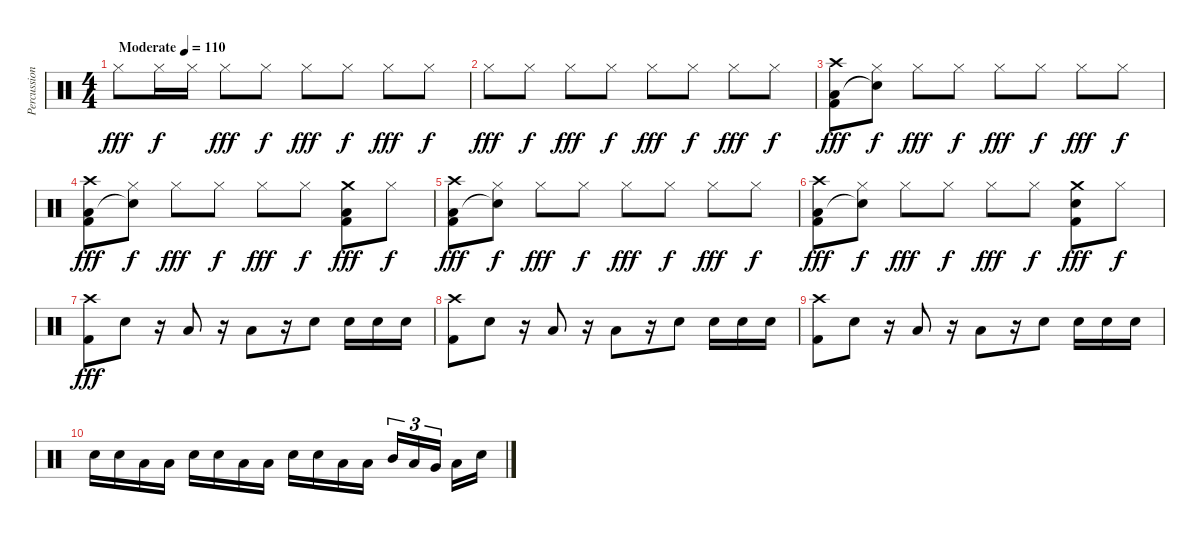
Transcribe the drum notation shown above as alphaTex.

\track ("Percussion" "Percussion") {instrument percussion}
\staff {score}
\articulation defaults
\ts (4 4)
\tempo (110 "Moderate")
\clef neutral
\ks c "Hi-Hat (closed)".8{dy fff} "Hi-Hat (closed)".16{dy f} "Hi-Hat (closed)".16 "Hi-Hat (closed)".8{dy fff} "Hi-Hat (closed)".8{dy f} "Hi-Hat (closed)".8{dy fff} "Hi-Hat (closed)".8{dy f} "Hi-Hat (closed)".8{dy fff} "Hi-Hat (closed)".8{dy f}
|
"Hi-Hat (closed)".8{dy fff} "Hi-Hat (closed)".8{dy f} "Hi-Hat (closed)".8{dy fff} "Hi-Hat (closed)".8{dy f} "Hi-Hat (closed)".8{dy fff} "Hi-Hat (closed)".8{dy f} "Hi-Hat (closed)".8{dy fff} "Hi-Hat (closed)".8{dy f} |
("Crash high (hit)" "Low Tom (hit)" "Kick (hit) 2").8{dy fff} ("Hi-Hat (closed)" "Snare (hit)"{t}).8{dy f} "Hi-Hat (closed)".8{dy fff} "Hi-Hat (closed)".8{dy f} "Hi-Hat (closed)".8{dy fff} "Hi-Hat (closed)".8{dy f} "Hi-Hat (closed)".8{dy fff} "Hi-Hat (closed)".8{dy f} |
("Crash high (hit)" "Low Tom (hit)" "Kick (hit) 2").8{dy fff} ("Hi-Hat (closed)" "Snare (hit)"{t}).8{dy f} "Hi-Hat (closed)".8{dy fff} "Hi-Hat (closed)".8{dy f} "Hi-Hat (closed)".8{dy fff} "Hi-Hat (closed)".8{dy f} ("Crash medium (hit)" "Low Tom (hit)" "Kick (hit) 2").8{dy fff} "Hi-Hat (closed)".8{dy f} |
("Crash high (hit)" "Low Tom (hit)" "Kick (hit) 2").8{dy fff} ("Hi-Hat (closed)" "Snare (hit)"{t}).8{dy f} "Hi-Hat (closed)".8{dy fff} "Hi-Hat (closed)".8{dy f} "Hi-Hat (closed)".8{dy fff} "Hi-Hat (closed)".8{dy f} "Hi-Hat (closed)".8{dy fff} "Hi-Hat (closed)".8{dy f} |
("Crash high (hit)" "Low Tom (hit)" "Kick (hit) 2").8{dy fff} ("Hi-Hat (closed)" "Snare (hit)"{t}).8{dy f} "Hi-Hat (closed)".8{dy fff} "Hi-Hat (closed)".8{dy f} "Hi-Hat (closed)".8{dy fff} "Hi-Hat (closed)".8{dy f} ("Crash medium (hit)" "Electric Snare (hit)" "Kick (hit) 2").8{dy fff} "Hi-Hat (closed)".8{dy f} |
("Crash high (hit)" "Kick (hit) 2").8{dy fff} "Electric Snare (hit)".8 r.16 "Low Tom (hit)".8 r.16 "Low Floor Tom (hit)".8 r.16 "Electric Snare (hit)".8 "Electric Snare (hit)".16 "Electric Snare (hit)".16 "Electric Snare (hit)".16 |
("Crash high (hit)" "Kick (hit) 2").8 "Electric Snare (hit)".8 r.16 "Low Tom (hit)".8 r.16 "Low Floor Tom (hit)".8 r.16 "Electric Snare (hit)".8 "Electric Snare (hit)".16 "Electric Snare (hit)".16 "Electric Snare (hit)".16 |
("Crash high (hit)" "Kick (hit) 2").8 "Electric Snare (hit)".8 r.16 "Low Tom (hit)".8 r.16 "Low Floor Tom (hit)".8 r.16 "Electric Snare (hit)".8 "Electric Snare (hit)".16 "Electric Snare (hit)".16 "Electric Snare (hit)".16 |
"Electric Snare (hit)".16 "Electric Snare (hit)".16 "Low Tom (hit)".16 "Low Floor Tom (hit)".16 "Electric Snare (hit)".16 "Electric Snare (hit)".16 "Low Tom (hit)".16 "Low Floor Tom (hit)".16 "Electric Snare (hit)".16 "Electric Snare (hit)".16 "Low Tom (hit)".16 "Low Floor Tom (hit)".16 "Mid Tom (hit)".16{tu (3 2)} "Low Tom (hit)".16{tu (3 2)} "Very Low Tom (hit)".16{tu (3 2) beam splitsecondary} "Low Floor Tom (hit)".16 "Electric Snare (hit)".16
